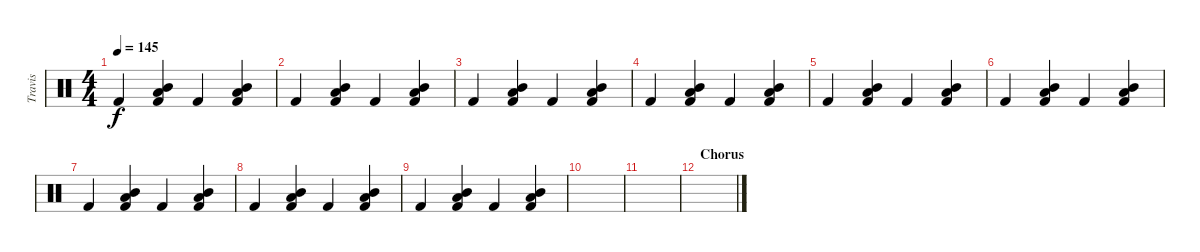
\track ("Travis" "Travis") {instrument percussion}
\staff {score}
\articulation defaults
\ts (4 4)
\tempo 145
\clef neutral
\ks c "Kick (hit) 2".4{dy f}
("Mid Tom (hit)" "Low Floor Tom (hit)" "Kick (hit) 2").4 "Kick (hit) 2".4 ("Mid Tom (hit)" "Low Floor Tom (hit)" "Kick (hit) 2").4 |
"Kick (hit) 2".4 ("Mid Tom (hit)" "Low Floor Tom (hit)" "Kick (hit) 2").4 "Kick (hit) 2".4 ("Mid Tom (hit)" "Low Floor Tom (hit)" "Kick (hit) 2").4 |
"Kick (hit) 2".4 ("Mid Tom (hit)" "Low Floor Tom (hit)" "Kick (hit) 2").4 "Kick (hit) 2".4 ("Mid Tom (hit)" "Low Floor Tom (hit)" "Kick (hit) 2").4 |
"Kick (hit) 2".4 ("Mid Tom (hit)" "Low Floor Tom (hit)" "Kick (hit) 2").4 "Kick (hit) 2".4 ("Mid Tom (hit)" "Low Floor Tom (hit)" "Kick (hit) 2").4 |
"Kick (hit) 2".4 ("Mid Tom (hit)" "Low Floor Tom (hit)" "Kick (hit) 2").4 "Kick (hit) 2".4 ("Mid Tom (hit)" "Low Floor Tom (hit)" "Kick (hit) 2").4 |
"Kick (hit) 2".4 ("Mid Tom (hit)" "Low Floor Tom (hit)" "Kick (hit) 2").4 "Kick (hit) 2".4 ("Mid Tom (hit)" "Low Floor Tom (hit)" "Kick (hit) 2").4 |
"Kick (hit) 2".4 ("Mid Tom (hit)" "Low Floor Tom (hit)" "Kick (hit) 2").4 "Kick (hit) 2".4 ("Mid Tom (hit)" "Low Floor Tom (hit)" "Kick (hit) 2").4 |
"Kick (hit) 2".4 ("Mid Tom (hit)" "Low Floor Tom (hit)" "Kick (hit) 2").4 "Kick (hit) 2".4 ("Mid Tom (hit)" "Low Floor Tom (hit)" "Kick (hit) 2").4 |
"Kick (hit) 2".4 ("Mid Tom (hit)" "Low Floor Tom (hit)" "Kick (hit) 2").4 "Kick (hit) 2".4 ("Mid Tom (hit)" "Low Floor Tom (hit)" "Kick (hit) 2").4 |
|
|
\section ("" "Chorus")
